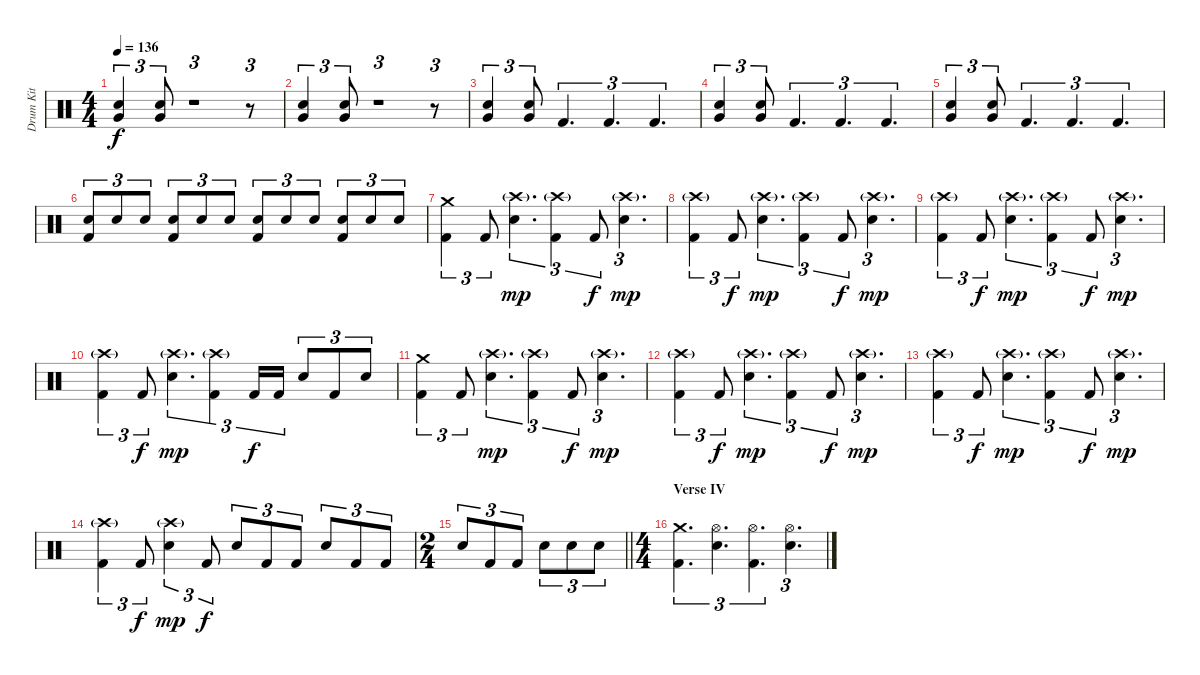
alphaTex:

\track ("Drum Kit" "Drum Kit") {instrument percussion}
\staff {score}
\articulation defaults
\ts (4 4)
\tempo 136
\clef neutral
\ks c
("Very Low Tom (hit)" "Electric Snare (hit)").4{tu (3 2) dy f} ("Very Low Tom (hit)" "Electric Snare (hit)").8{tu (3 2)} r.1{tu (3 2)} r.8{tu (3 2)} |
("Very Low Tom (hit)" "Electric Snare (hit)").4{tu (3 2)} ("Very Low Tom (hit)" "Electric Snare (hit)").8{tu (3 2)} r.1{tu (3 2)} r.8{tu (3 2)} |
("Very Low Tom (hit)" "Electric Snare (hit)").4{tu (3 2)} ("Very Low Tom (hit)" "Electric Snare (hit)").8{tu (3 2)} "Kick (hit) 2".4{d tu (3 2)} "Kick (hit) 2".4{d tu (3 2)} "Kick (hit) 2".4{d tu (3 2)} |
("Very Low Tom (hit)" "Electric Snare (hit)").4{tu (3 2)} ("Very Low Tom (hit)" "Electric Snare (hit)").8{tu (3 2)} "Kick (hit) 2".4{d tu (3 2)} "Kick (hit) 2".4{d tu (3 2)} "Kick (hit) 2".4{d tu (3 2)} |
("Very Low Tom (hit)" "Electric Snare (hit)").4{tu (3 2)} ("Very Low Tom (hit)" "Electric Snare (hit)").8{tu (3 2)} "Kick (hit) 2".4{d tu (3 2)} "Kick (hit) 2".4{d tu (3 2)} "Kick (hit) 2".4{d tu (3 2)} |
("Electric Snare (hit)" "Kick (hit) 2").8{tu (3 2)} "Electric Snare (hit)".8{tu (3 2)} "Electric Snare (hit)".8{tu (3 2)} ("Electric Snare (hit)" "Kick (hit) 2").8{tu (3 2)} "Electric Snare (hit)".8{tu (3 2)} "Electric Snare (hit)".8{tu (3 2)} ("Electric Snare (hit)" "Kick (hit) 2").8{tu (3 2)} "Electric Snare (hit)".8{tu (3 2)} "Electric Snare (hit)".8{tu (3 2)} ("Electric Snare (hit)" "Kick (hit) 2").8{tu (3 2)} "Electric Snare (hit)".8{tu (3 2)} "Electric Snare (hit)".8{tu (3 2)} |
("Crash medium (hit)" "Kick (hit) 2").4{tu (3 2)} "Kick (hit) 2".8{tu (3 2)} ("Crash high (hit)"{g} "Electric Snare (hit)").4{d tu (3 2) dy mp} ("Crash high (hit)"{g} "Kick (hit) 2").4{tu (3 2)} "Kick (hit) 2".8{tu (3 2) dy f} ("Crash high (hit)"{g} "Electric Snare (hit)").4{d tu (3 2) dy mp} |
("Crash high (hit)"{g} "Kick (hit) 2").4{tu (3 2)} "Kick (hit) 2".8{tu (3 2) dy f} ("Crash high (hit)"{g} "Electric Snare (hit)").4{d tu (3 2) dy mp} ("Crash high (hit)"{g} "Kick (hit) 2").4{tu (3 2)} "Kick (hit) 2".8{tu (3 2) dy f} ("Crash high (hit)"{g} "Electric Snare (hit)").4{d tu (3 2) dy mp} |
("Crash high (hit)"{g} "Kick (hit) 2").4{tu (3 2)} "Kick (hit) 2".8{tu (3 2) dy f} ("Crash high (hit)"{g} "Electric Snare (hit)").4{d tu (3 2) dy mp} ("Crash high (hit)"{g} "Kick (hit) 2").4{tu (3 2)} "Kick (hit) 2".8{tu (3 2) dy f} ("Crash high (hit)"{g} "Electric Snare (hit)").4{d tu (3 2) dy mp} |
("Crash high (hit)"{g} "Kick (hit) 2").4{tu (3 2)} "Kick (hit) 2".8{tu (3 2) dy f} ("Crash high (hit)"{g} "Electric Snare (hit)").4{d tu (3 2) dy mp} ("Crash high (hit)"{g} "Kick (hit) 2").4{tu (3 2)} "Kick (hit) 2".16{tu (3 2) dy f} "Kick (hit) 2".16{tu (3 2)} "Electric Snare (hit)".8{tu (3 2)} "Kick (hit) 2".8{tu (3 2)} "Electric Snare (hit)".8{tu (3 2)} |
("Crash medium (hit)" "Kick (hit) 2").4{tu (3 2)} "Kick (hit) 2".8{tu (3 2)} ("Crash high (hit)"{g} "Electric Snare (hit)").4{d tu (3 2) dy mp} ("Crash high (hit)"{g} "Kick (hit) 2").4{tu (3 2)} "Kick (hit) 2".8{tu (3 2) dy f} ("Crash high (hit)"{g} "Electric Snare (hit)").4{d tu (3 2) dy mp} |
("Crash high (hit)"{g} "Kick (hit) 2").4{tu (3 2)} "Kick (hit) 2".8{tu (3 2) dy f} ("Crash high (hit)"{g} "Electric Snare (hit)").4{d tu (3 2) dy mp} ("Crash high (hit)"{g} "Kick (hit) 2").4{tu (3 2)} "Kick (hit) 2".8{tu (3 2) dy f} ("Crash high (hit)"{g} "Electric Snare (hit)").4{d tu (3 2) dy mp} |
("Crash high (hit)"{g} "Kick (hit) 2").4{tu (3 2)} "Kick (hit) 2".8{tu (3 2) dy f} ("Crash high (hit)"{g} "Electric Snare (hit)").4{d tu (3 2) dy mp} ("Crash high (hit)"{g} "Kick (hit) 2").4{tu (3 2)} "Kick (hit) 2".8{tu (3 2) dy f} ("Crash high (hit)"{g} "Electric Snare (hit)").4{d tu (3 2) dy mp} |
("Crash high (hit)"{g} "Kick (hit) 2").4{tu (3 2)} "Kick (hit) 2".8{tu (3 2) dy f} ("Crash high (hit)"{g} "Electric Snare (hit)").4{tu (3 2) dy mp} "Kick (hit) 2".8{tu (3 2) dy f} "Electric Snare (hit)".8{tu (3 2)} "Kick (hit) 2".8{tu (3 2)} "Kick (hit) 2".8{tu (3 2)} "Electric Snare (hit)".8{tu (3 2)} "Kick (hit) 2".8{tu (3 2)} "Kick (hit) 2".8{tu (3 2)} |
\ts (2 4)
\barLineRight lightlight "Electric Snare (hit)".8{tu (3 2)} "Kick (hit) 2".8{tu (3 2)} "Kick (hit) 2".8{tu (3 2)} "Electric Snare (hit)".8{tu (3 2)} "Electric Snare (hit)".8{tu (3 2)} "Electric Snare (hit)".8{tu (3 2)}
|
\ts (4 4)
\section ("" "Verse IV")
("Crash medium (hit)" "Kick (hit) 2").4{d tu (3 2)} ("Hi-Hat (open)" "Electric Snare (hit)").4{d tu (3 2)} ("Hi-Hat (open)" "Kick (hit) 2").4{d tu (3 2)} ("Hi-Hat (open)" "Electric Snare (hit)").4{d tu (3 2)}
